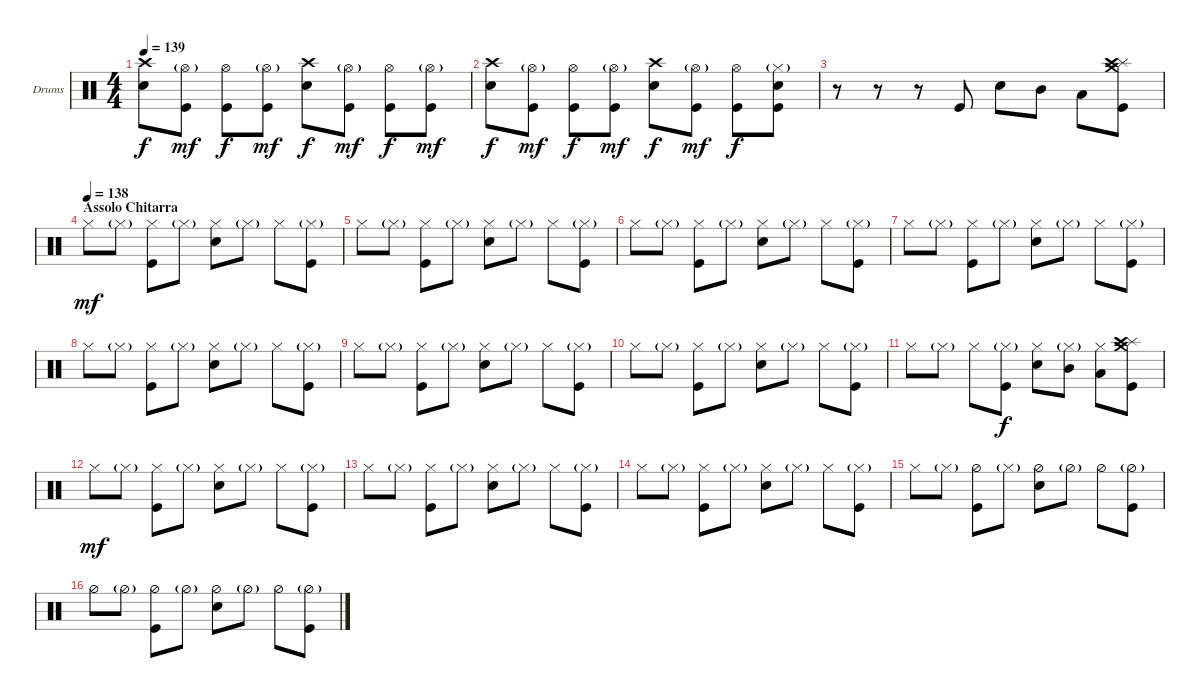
\defaultSystemsLayout 4
\bracketExtendMode groupsimilarinstruments
\firstSystemTrackNameOrientation horizontal
\otherSystemsTrackNameOrientation horizontal
\track ("Valverde Drums" "Drums") {instrument percussion}
\staff {score}
\articulation defaults
\ts (4 4)
\tempo 139
\clef neutral
\ks c
("Crash high (hit)" "Snare (hit) 2").8{dy f} ("Kick (hit)" "Hi-Hat (open)"{g}).8{dy mf} ("Kick (hit)" "Hi-Hat (open)").8{dy f} ("Hi-Hat (open)"{g} "Kick (hit)").8{dy mf} ("Snare (hit) 2" "Crash high (hit)").8{dy f} ("Kick (hit)" "Hi-Hat (open)"{g}).8{dy mf} ("Kick (hit)" "Hi-Hat (open)").8{dy f} ("Kick (hit)" "Hi-Hat (open)"{g}).8{dy mf} |
("Crash high (hit)" "Snare (hit) 2").8{dy f} ("Kick (hit)" "Hi-Hat (open)"{g}).8{dy mf} ("Kick (hit)" "Hi-Hat (open)").8{dy f} ("Hi-Hat (open)"{g} "Kick (hit)").8{dy mf} ("Snare (hit) 2" "Crash high (hit)").8{dy f} ("Kick (hit)" "Hi-Hat (open)"{g}).8{dy mf} ("Kick (hit)" "Hi-Hat (open)").8{dy f} ("Kick (hit)" "Hi-Hat (closed)"{g} "Snare (hit) 2").8 |
r.8 r.8 r.8 "Kick (hit)".8 "Snare (hit) 2".8 "Mid Tom (hit)".8 "Low Tom (hit)".8 ("Splash (hit)" "Crash high (hit)" "Crash medium (hit)" "Kick (hit)").8 |
\section ("" "Assolo Chitarra")
\tempo (138)
"Hi-Hat (closed)".8{dy mf} "Hi-Hat (closed)"{g}.8 ("Hi-Hat (closed)" "Kick (hit)").8 "Hi-Hat (closed)"{g}.8 ("Hi-Hat (closed)" "Snare (hit) 2").8 "Hi-Hat (closed)"{g}.8 "Hi-Hat (closed)".8 ("Hi-Hat (closed)"{g} "Kick (hit)").8 |
"Hi-Hat (closed)".8 "Hi-Hat (closed)"{g}.8 ("Hi-Hat (closed)" "Kick (hit)").8 "Hi-Hat (closed)"{g}.8 ("Hi-Hat (closed)" "Snare (hit) 2").8 "Hi-Hat (closed)"{g}.8 "Hi-Hat (closed)".8 ("Hi-Hat (closed)"{g} "Kick (hit)").8 |
"Hi-Hat (closed)".8 "Hi-Hat (closed)"{g}.8 ("Hi-Hat (closed)" "Kick (hit)").8 "Hi-Hat (closed)"{g}.8 ("Hi-Hat (closed)" "Snare (hit) 2").8 "Hi-Hat (closed)"{g}.8 "Hi-Hat (closed)".8 ("Hi-Hat (closed)"{g} "Kick (hit)").8 |
"Hi-Hat (closed)".8 "Hi-Hat (closed)"{g}.8 ("Hi-Hat (closed)" "Kick (hit)").8 "Hi-Hat (closed)"{g}.8 ("Hi-Hat (closed)" "Snare (hit) 2").8 "Hi-Hat (closed)"{g}.8 "Hi-Hat (closed)".8 ("Hi-Hat (closed)"{g} "Kick (hit)").8 |
"Hi-Hat (closed)".8 "Hi-Hat (closed)"{g}.8 ("Hi-Hat (closed)" "Kick (hit)").8 "Hi-Hat (closed)"{g}.8 ("Hi-Hat (closed)" "Snare (hit) 2").8 "Hi-Hat (closed)"{g}.8 "Hi-Hat (closed)".8 ("Hi-Hat (closed)"{g} "Kick (hit)").8 |
"Hi-Hat (closed)".8 "Hi-Hat (closed)"{g}.8 ("Hi-Hat (closed)" "Kick (hit)").8 "Hi-Hat (closed)"{g}.8 ("Hi-Hat (closed)" "Snare (hit) 2").8 "Hi-Hat (closed)"{g}.8 "Hi-Hat (closed)".8 ("Hi-Hat (closed)"{g} "Kick (hit)").8 |
"Hi-Hat (closed)".8 "Hi-Hat (closed)"{g}.8 ("Hi-Hat (closed)" "Kick (hit)").8 "Hi-Hat (closed)"{g}.8 ("Hi-Hat (closed)" "Snare (hit) 2").8 "Hi-Hat (closed)"{g}.8 "Hi-Hat (closed)".8 ("Hi-Hat (closed)"{g} "Kick (hit)").8 |
"Hi-Hat (closed)".8 "Hi-Hat (closed)"{g}.8 "Hi-Hat (closed)".8 ("Kick (hit)" "Hi-Hat (closed)"{g}).8{dy f} ("Snare (hit) 2" "Hi-Hat (closed)").8 ("Mid Tom (hit)" "Hi-Hat (closed)"{g}).8 ("Low Tom (hit)" "Hi-Hat (closed)").8 ("Splash (hit)" "Crash high (hit)" "Crash medium (hit)" "Kick (hit)").8 |
\scale
0.273828 "Hi-Hat (closed)".8{dy mf} "Hi-Hat (closed)"{g}.8 ("Hi-Hat (closed)" "Kick (hit)").8 "Hi-Hat (closed)"{g}.8 ("Hi-Hat (closed)" "Snare (hit) 2").8 "Hi-Hat (closed)"{g}.8 "Hi-Hat (closed)".8 ("Hi-Hat (closed)"{g} "Kick (hit)").8 |
\scale
0.242057 "Hi-Hat (closed)".8 "Hi-Hat (closed)"{g}.8 ("Hi-Hat (closed)" "Kick (hit)").8 "Hi-Hat (closed)"{g}.8 ("Hi-Hat (closed)" "Snare (hit) 2").8 "Hi-Hat (closed)"{g}.8 "Hi-Hat (closed)".8 ("Hi-Hat (closed)"{g} "Kick (hit)").8 |
\scale
0.242057 "Hi-Hat (closed)".8 "Hi-Hat (closed)"{g}.8 ("Hi-Hat (closed)" "Kick (hit)").8 "Hi-Hat (closed)"{g}.8 ("Hi-Hat (closed)" "Snare (hit) 2").8 "Hi-Hat (closed)"{g}.8 "Hi-Hat (closed)".8 ("Hi-Hat (closed)"{g} "Kick (hit)").8 |
\scale
0.242057 "Hi-Hat (closed)".8 "Hi-Hat (closed)"{g}.8 ("Hi-Hat (half)" "Kick (hit)").8 "Hi-Hat (closed)"{g}.8 ("Hi-Hat (half)" "Snare (hit) 2").8 "Hi-Hat (half)"{g}.8 "Hi-Hat (half)".8 ("Hi-Hat (half)"{g} "Kick (hit)").8 |
\scale
0.271772 "Hi-Hat (half)".8 "Hi-Hat (half)"{g}.8 ("Hi-Hat (half)" "Kick (hit)").8 "Hi-Hat (half)"{g}.8 ("Hi-Hat (half)" "Snare (hit) 2").8 "Hi-Hat (half)"{g}.8 "Hi-Hat (half)".8 ("Kick (hit)" "Hi-Hat (half)"{g}).8
